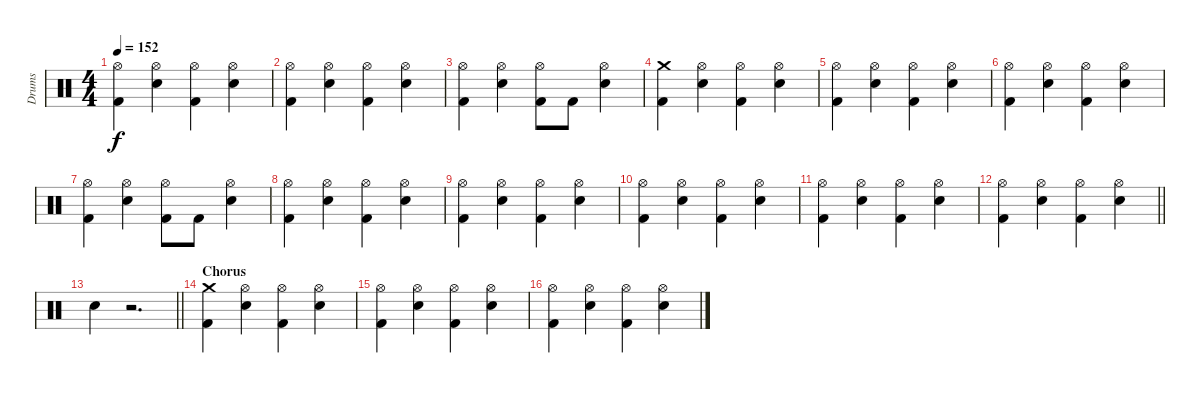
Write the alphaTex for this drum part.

\track ("Drums" "Drums") {instrument percussion}
\staff {score}
\articulation defaults
\ts (4 4)
\tempo 152
\clef neutral
\ks c
("Hi-Hat (open)" "Kick (hit) 2").4{dy f} ("Hi-Hat (open)" "Electric Snare (hit)").4 ("Hi-Hat (open)" "Kick (hit) 2").4 ("Hi-Hat (open)" "Electric Snare (hit)").4 |
("Hi-Hat (open)" "Kick (hit) 2").4 ("Hi-Hat (open)" "Electric Snare (hit)").4 ("Hi-Hat (open)" "Kick (hit) 2").4 ("Hi-Hat (open)" "Electric Snare (hit)").4 |
("Hi-Hat (open)" "Kick (hit) 2").4 ("Hi-Hat (open)" "Electric Snare (hit)").4 ("Hi-Hat (open)" "Kick (hit) 2").8 "Kick (hit) 2".8 ("Hi-Hat (open)" "Electric Snare (hit)").4 |
("Crash medium (hit)" "Kick (hit) 2").4 ("Hi-Hat (open)" "Electric Snare (hit)").4 ("Hi-Hat (open)" "Kick (hit) 2").4 ("Hi-Hat (open)" "Electric Snare (hit)").4 |
("Hi-Hat (open)" "Kick (hit) 2").4 ("Hi-Hat (open)" "Electric Snare (hit)").4 ("Hi-Hat (open)" "Kick (hit) 2").4 ("Hi-Hat (open)" "Electric Snare (hit)").4 |
("Hi-Hat (open)" "Kick (hit) 2").4 ("Hi-Hat (open)" "Electric Snare (hit)").4 ("Hi-Hat (open)" "Kick (hit) 2").4 ("Hi-Hat (open)" "Electric Snare (hit)").4 |
("Hi-Hat (open)" "Kick (hit) 2").4 ("Hi-Hat (open)" "Electric Snare (hit)").4 ("Hi-Hat (open)" "Kick (hit) 2").8 "Kick (hit) 2".8 ("Hi-Hat (open)" "Electric Snare (hit)").4 |
("Hi-Hat (open)" "Kick (hit) 2").4 ("Hi-Hat (open)" "Electric Snare (hit)").4 ("Hi-Hat (open)" "Kick (hit) 2").4 ("Hi-Hat (open)" "Electric Snare (hit)").4 |
("Hi-Hat (open)" "Kick (hit) 2").4 ("Hi-Hat (open)" "Electric Snare (hit)").4 ("Hi-Hat (open)" "Kick (hit) 2").4 ("Hi-Hat (open)" "Electric Snare (hit)").4 |
("Hi-Hat (open)" "Kick (hit) 2").4 ("Hi-Hat (open)" "Electric Snare (hit)").4 ("Hi-Hat (open)" "Kick (hit) 2").4 ("Hi-Hat (open)" "Electric Snare (hit)").4 |
("Hi-Hat (open)" "Kick (hit) 2").4 ("Hi-Hat (open)" "Electric Snare (hit)").4 ("Hi-Hat (open)" "Kick (hit) 2").4 ("Hi-Hat (open)" "Electric Snare (hit)").4 |
\barLineRight lightlight
("Hi-Hat (open)" "Kick (hit) 2").4 ("Hi-Hat (open)" "Electric Snare (hit)").4 ("Hi-Hat (open)" "Kick (hit) 2").4 ("Hi-Hat (open)" "Electric Snare (hit)").4 |
\section ("" "")
\barLineRight lightlight "Electric Snare (hit)".4
r.2{d} |
\section ("" "Chorus")
("Crash medium (hit)" "Kick (hit) 2").4 ("Hi-Hat (open)" "Electric Snare (hit)").4 ("Hi-Hat (open)" "Kick (hit) 2").4 ("Hi-Hat (open)" "Electric Snare (hit)").4 |
("Hi-Hat (open)" "Kick (hit) 2").4 ("Hi-Hat (open)" "Electric Snare (hit)").4 ("Hi-Hat (open)" "Kick (hit) 2").4 ("Hi-Hat (open)" "Electric Snare (hit)").4 |
("Hi-Hat (open)" "Kick (hit) 2").4 ("Hi-Hat (open)" "Electric Snare (hit)").4 ("Hi-Hat (open)" "Kick (hit) 2").4 ("Hi-Hat (open)" "Electric Snare (hit)").4
